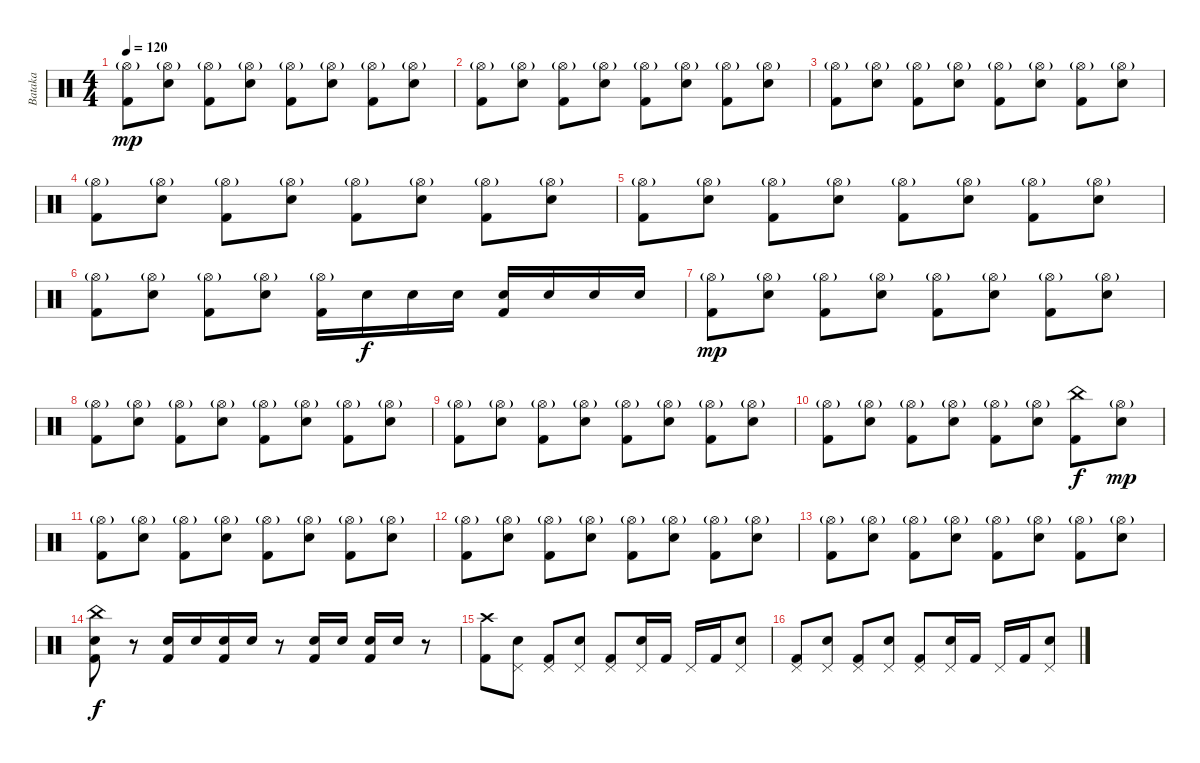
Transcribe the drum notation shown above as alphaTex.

\track ("Bataka" "Bataka") {instrument percussion}
\staff {score}
\articulation defaults
\ts (4 4)
\tempo 120
\clef neutral
\ks c
("Hi-Hat (open)"{g} "Kick (hit) 2").8{dy mp} ("Hi-Hat (open)"{g} "Snare (hit) 2").8 ("Hi-Hat (open)"{g} "Kick (hit) 2").8 ("Hi-Hat (open)"{g} "Snare (hit) 2").8 ("Hi-Hat (open)"{g} "Kick (hit) 2").8 ("Hi-Hat (open)"{g} "Snare (hit) 2").8 ("Hi-Hat (open)"{g} "Kick (hit) 2").8 ("Hi-Hat (open)"{g} "Snare (hit) 2").8 |
("Hi-Hat (open)"{g} "Kick (hit) 2").8 ("Hi-Hat (open)"{g} "Snare (hit) 2").8 ("Hi-Hat (open)"{g} "Kick (hit) 2").8 ("Hi-Hat (open)"{g} "Snare (hit) 2").8 ("Hi-Hat (open)"{g} "Kick (hit) 2").8 ("Hi-Hat (open)"{g} "Snare (hit) 2").8 ("Hi-Hat (open)"{g} "Kick (hit) 2").8 ("Hi-Hat (open)"{g} "Snare (hit) 2").8 |
("Hi-Hat (open)"{g} "Kick (hit) 2").8 ("Hi-Hat (open)"{g} "Snare (hit) 2").8 ("Hi-Hat (open)"{g} "Kick (hit) 2").8 ("Hi-Hat (open)"{g} "Snare (hit) 2").8 ("Hi-Hat (open)"{g} "Kick (hit) 2").8 ("Hi-Hat (open)"{g} "Snare (hit) 2").8 ("Hi-Hat (open)"{g} "Kick (hit) 2").8 ("Hi-Hat (open)"{g} "Snare (hit) 2").8 |
("Hi-Hat (open)"{g} "Kick (hit) 2").8 ("Hi-Hat (open)"{g} "Snare (hit) 2").8 ("Hi-Hat (open)"{g} "Kick (hit) 2").8 ("Hi-Hat (open)"{g} "Snare (hit) 2").8 ("Hi-Hat (open)"{g} "Kick (hit) 2").8 ("Hi-Hat (open)"{g} "Snare (hit) 2").8 ("Hi-Hat (open)"{g} "Kick (hit) 2").8 ("Hi-Hat (open)"{g} "Snare (hit) 2").8 |
("Hi-Hat (open)"{g} "Kick (hit) 2").8 ("Hi-Hat (open)"{g} "Snare (hit) 2").8 ("Hi-Hat (open)"{g} "Kick (hit) 2").8 ("Hi-Hat (open)"{g} "Snare (hit) 2").8 ("Hi-Hat (open)"{g} "Kick (hit) 2").8 ("Hi-Hat (open)"{g} "Snare (hit) 2").8 ("Hi-Hat (open)"{g} "Kick (hit) 2").8 ("Hi-Hat (open)"{g} "Snare (hit) 2").8 |
("Hi-Hat (open)"{g} "Kick (hit) 2").8 ("Hi-Hat (open)"{g} "Snare (hit) 2").8 ("Hi-Hat (open)"{g} "Kick (hit) 2").8 ("Hi-Hat (open)"{g} "Snare (hit) 2").8 ("Hi-Hat (open)"{g} "Kick (hit) 2").16 "Snare (hit) 2".16{dy f} "Snare (hit) 2".16 "Snare (hit) 2".16 ("Snare (hit) 2" "Kick (hit) 2").16 "Snare (hit) 2".16 "Snare (hit) 2".16 "Snare (hit) 2".16 |
("Hi-Hat (open)"{g} "Kick (hit) 2").8{dy mp} ("Hi-Hat (open)"{g} "Snare (hit) 2").8 ("Hi-Hat (open)"{g} "Kick (hit) 2").8 ("Hi-Hat (open)"{g} "Snare (hit) 2").8 ("Hi-Hat (open)"{g} "Kick (hit) 2").8 ("Hi-Hat (open)"{g} "Snare (hit) 2").8 ("Hi-Hat (open)"{g} "Kick (hit) 2").8 ("Hi-Hat (open)"{g} "Snare (hit) 2").8 |
("Hi-Hat (open)"{g} "Kick (hit) 2").8 ("Hi-Hat (open)"{g} "Snare (hit) 2").8 ("Hi-Hat (open)"{g} "Kick (hit) 2").8 ("Hi-Hat (open)"{g} "Snare (hit) 2").8 ("Hi-Hat (open)"{g} "Kick (hit) 2").8 ("Hi-Hat (open)"{g} "Snare (hit) 2").8 ("Hi-Hat (open)"{g} "Kick (hit) 2").8 ("Hi-Hat (open)"{g} "Snare (hit) 2").8 |
("Hi-Hat (open)"{g} "Kick (hit) 2").8 ("Hi-Hat (open)"{g} "Snare (hit) 2").8 ("Hi-Hat (open)"{g} "Kick (hit) 2").8 ("Hi-Hat (open)"{g} "Snare (hit) 2").8 ("Hi-Hat (open)"{g} "Kick (hit) 2").8 ("Hi-Hat (open)"{g} "Snare (hit) 2").8 ("Hi-Hat (open)"{g} "Kick (hit) 2").8 ("Hi-Hat (open)"{g} "Snare (hit) 2").8 |
("Hi-Hat (open)"{g} "Kick (hit) 2").8 ("Hi-Hat (open)"{g} "Snare (hit) 2").8 ("Hi-Hat (open)"{g} "Kick (hit) 2").8 ("Hi-Hat (open)"{g} "Snare (hit) 2").8 ("Hi-Hat (open)"{g} "Kick (hit) 2").8 ("Hi-Hat (open)"{g} "Snare (hit) 2").8 ("China (hit)" "Kick (hit) 2").8{dy f} ("Hi-Hat (open)"{g} "Snare (hit) 2").8{dy mp} |
("Hi-Hat (open)"{g} "Kick (hit) 2").8 ("Hi-Hat (open)"{g} "Snare (hit) 2").8 ("Hi-Hat (open)"{g} "Kick (hit) 2").8 ("Hi-Hat (open)"{g} "Snare (hit) 2").8 ("Hi-Hat (open)"{g} "Kick (hit) 2").8 ("Hi-Hat (open)"{g} "Snare (hit) 2").8 ("Hi-Hat (open)"{g} "Kick (hit) 2").8 ("Hi-Hat (open)"{g} "Snare (hit) 2").8 |
("Hi-Hat (open)"{g} "Kick (hit) 2").8 ("Hi-Hat (open)"{g} "Snare (hit) 2").8 ("Hi-Hat (open)"{g} "Kick (hit) 2").8 ("Hi-Hat (open)"{g} "Snare (hit) 2").8 ("Hi-Hat (open)"{g} "Kick (hit) 2").8 ("Hi-Hat (open)"{g} "Snare (hit) 2").8 ("Hi-Hat (open)"{g} "Kick (hit) 2").8 ("Hi-Hat (open)"{g} "Snare (hit) 2").8 |
("Hi-Hat (open)"{g} "Kick (hit) 2").8 ("Hi-Hat (open)"{g} "Snare (hit) 2").8 ("Hi-Hat (open)"{g} "Kick (hit) 2").8 ("Hi-Hat (open)"{g} "Snare (hit) 2").8 ("Hi-Hat (open)"{g} "Kick (hit) 2").8 ("Hi-Hat (open)"{g} "Snare (hit) 2").8 ("Hi-Hat (open)"{g} "Kick (hit) 2").8 ("Hi-Hat (open)"{g} "Snare (hit) 2").8 |
("China (hit)" "Kick (hit) 2" "Snare (hit) 2").8{dy f} r.8 ("Snare (hit) 2" "Kick (hit) 2").16 "Snare (hit) 2".16 ("Snare (hit) 2" "Kick (hit) 2").16 "Snare (hit) 2".16 r.8 ("Snare (hit) 2" "Kick (hit) 2").16 "Snare (hit) 2".16 ("Snare (hit) 2" "Kick (hit) 2").16 "Snare (hit) 2".16 r.8 |
("Crash high (hit)" "Kick (hit) 2").8 ("Pedal Hi-Hat (hit)" "Snare (hit) 2").8 ("Pedal Hi-Hat (hit)" "Kick (hit) 2").8 ("Pedal Hi-Hat (hit)" "Snare (hit) 2").8 ("Pedal Hi-Hat (hit)" "Kick (hit) 2").8 ("Pedal Hi-Hat (hit)" "Snare (hit) 2").16 "Kick (hit) 2".16 "Pedal Hi-Hat (hit)".16 "Kick (hit) 2".16 ("Pedal Hi-Hat (hit)" "Snare (hit) 2").8 |
("Pedal Hi-Hat (hit)" "Kick (hit) 2").8 ("Pedal Hi-Hat (hit)" "Snare (hit) 2").8 ("Pedal Hi-Hat (hit)" "Kick (hit) 2").8 ("Pedal Hi-Hat (hit)" "Snare (hit) 2").8 ("Pedal Hi-Hat (hit)" "Kick (hit) 2").8 ("Pedal Hi-Hat (hit)" "Snare (hit) 2").16 "Kick (hit) 2".16 "Pedal Hi-Hat (hit)".16 "Kick (hit) 2".16 ("Pedal Hi-Hat (hit)" "Snare (hit) 2").8
